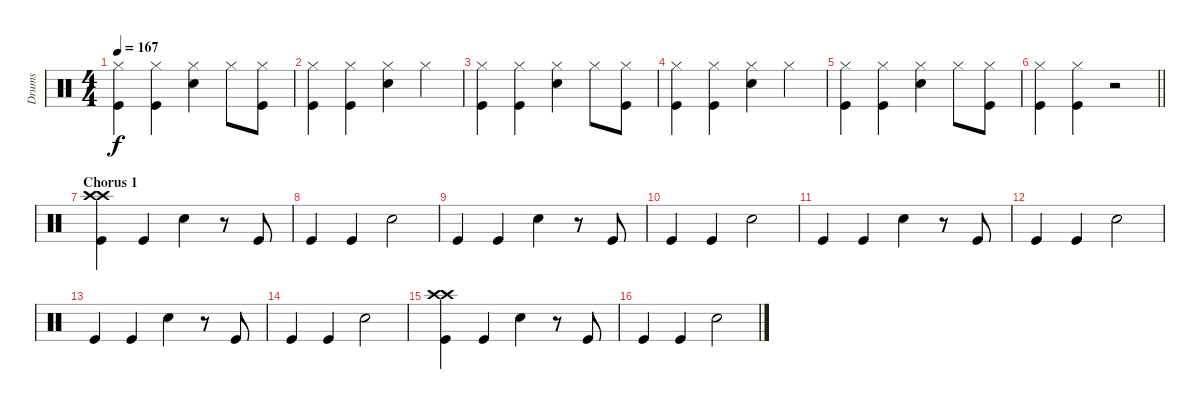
\track ("Drums" "Drums") {instrument percussion}
\staff {score}
\articulation defaults
\ts (4 4)
\tempo 167
\clef neutral
\ks c
("Kick (hit)" "Hi-Hat (closed)").4{dy f} ("Kick (hit)" "Hi-Hat (closed)").4 ("Electric Snare (hit)" "Hi-Hat (closed)").4 "Hi-Hat (closed)".8 ("Kick (hit)" "Hi-Hat (closed)").8 |
("Kick (hit)" "Hi-Hat (closed)").4 ("Kick (hit)" "Hi-Hat (closed)").4 ("Electric Snare (hit)" "Hi-Hat (closed)").4 "Hi-Hat (closed)".4 |
("Kick (hit)" "Hi-Hat (closed)").4 ("Kick (hit)" "Hi-Hat (closed)").4 ("Electric Snare (hit)" "Hi-Hat (closed)").4 "Hi-Hat (closed)".8 ("Kick (hit)" "Hi-Hat (closed)").8 |
("Kick (hit)" "Hi-Hat (closed)").4 ("Kick (hit)" "Hi-Hat (closed)").4 ("Electric Snare (hit)" "Hi-Hat (closed)").4 "Hi-Hat (closed)".4 |
("Kick (hit)" "Hi-Hat (closed)").4 ("Kick (hit)" "Hi-Hat (closed)").4 ("Electric Snare (hit)" "Hi-Hat (closed)").4 "Hi-Hat (closed)".8 ("Kick (hit)" "Hi-Hat (closed)").8 |
\barLineRight lightlight
("Kick (hit)" "Hi-Hat (closed)").4 ("Kick (hit)" "Hi-Hat (closed)").4 r.2 |
\section ("" "Chorus 1")
("Crash high (hit)" "Kick (hit)" "Crash high (hit)").4 "Kick (hit)".4 "Electric Snare (hit)".4 r.8 "Kick (hit)".8 |
"Kick (hit)".4 "Kick (hit)".4 "Electric Snare (hit)".2 |
"Kick (hit)".4 "Kick (hit)".4 "Electric Snare (hit)".4 r.8 "Kick (hit)".8 |
"Kick (hit)".4 "Kick (hit)".4 "Electric Snare (hit)".2 |
"Kick (hit)".4 "Kick (hit)".4 "Electric Snare (hit)".4 r.8 "Kick (hit)".8 |
"Kick (hit)".4 "Kick (hit)".4 "Electric Snare (hit)".2 |
"Kick (hit)".4 "Kick (hit)".4 "Electric Snare (hit)".4 r.8 "Kick (hit)".8 |
"Kick (hit)".4 "Kick (hit)".4 "Electric Snare (hit)".2 |
("Crash high (hit)" "Kick (hit)" "Crash high (hit)").4 "Kick (hit)".4 "Electric Snare (hit)".4 r.8 "Kick (hit)".8 |
"Kick (hit)".4 "Kick (hit)".4 "Electric Snare (hit)".2
